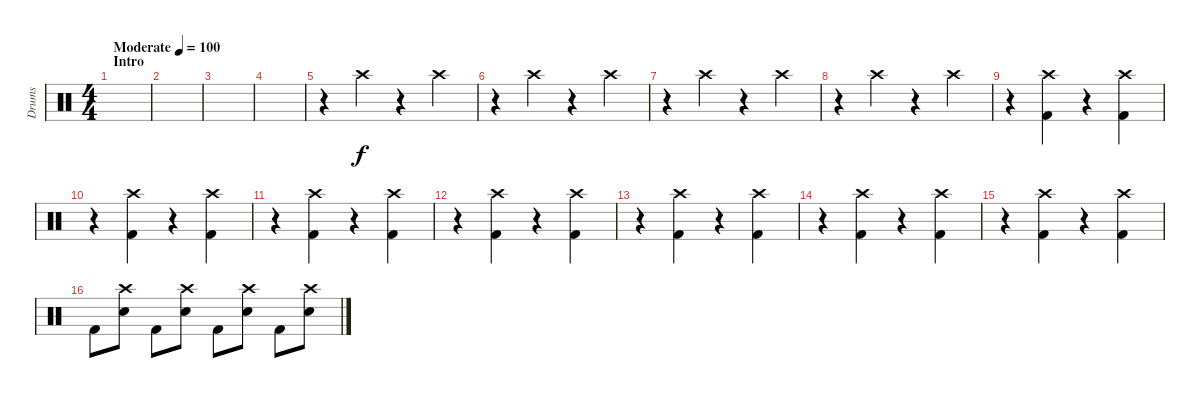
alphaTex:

\track ("Drums" "Drums") {instrument percussion}
\staff {score}
\articulation defaults
\ts (4 4)
\section ("" "Intro")
\tempo (100 "Moderate")
\clef neutral
\ks c
|
|
|
|
r.4 "Crash high (hit)".4 r.4 "Crash high (hit)".4 |
r.4 "Crash high (hit)".4 r.4 "Crash high (hit)".4 |
r.4 "Crash high (hit)".4 r.4 "Crash high (hit)".4 |
r.4 "Crash high (hit)".4 r.4 "Crash high (hit)".4 |
r.4 ("Crash high (hit)" "Kick (hit) 2").4 r.4 ("Crash high (hit)" "Kick (hit) 2").4 |
r.4 ("Crash high (hit)" "Kick (hit) 2").4 r.4 ("Crash high (hit)" "Kick (hit) 2").4 |
r.4 ("Crash high (hit)" "Kick (hit) 2").4 r.4 ("Crash high (hit)" "Kick (hit) 2").4 |
r.4 ("Crash high (hit)" "Kick (hit) 2").4 r.4 ("Crash high (hit)" "Kick (hit) 2").4 |
r.4 ("Crash high (hit)" "Kick (hit) 2").4 r.4 ("Crash high (hit)" "Kick (hit) 2").4 |
r.4 ("Crash high (hit)" "Kick (hit) 2").4 r.4 ("Crash high (hit)" "Kick (hit) 2").4 |
r.4 ("Crash high (hit)" "Kick (hit) 2").4 r.4 ("Crash high (hit)" "Kick (hit) 2").4 |
"Kick (hit) 2".8 ("Crash high (hit)" "Electric Snare (hit)").8 "Kick (hit) 2".8 ("Crash high (hit)" "Electric Snare (hit)").8 "Kick (hit) 2".8 ("Crash high (hit)" "Electric Snare (hit)").8 "Kick (hit) 2".8 ("Crash high (hit)" "Electric Snare (hit)").8
